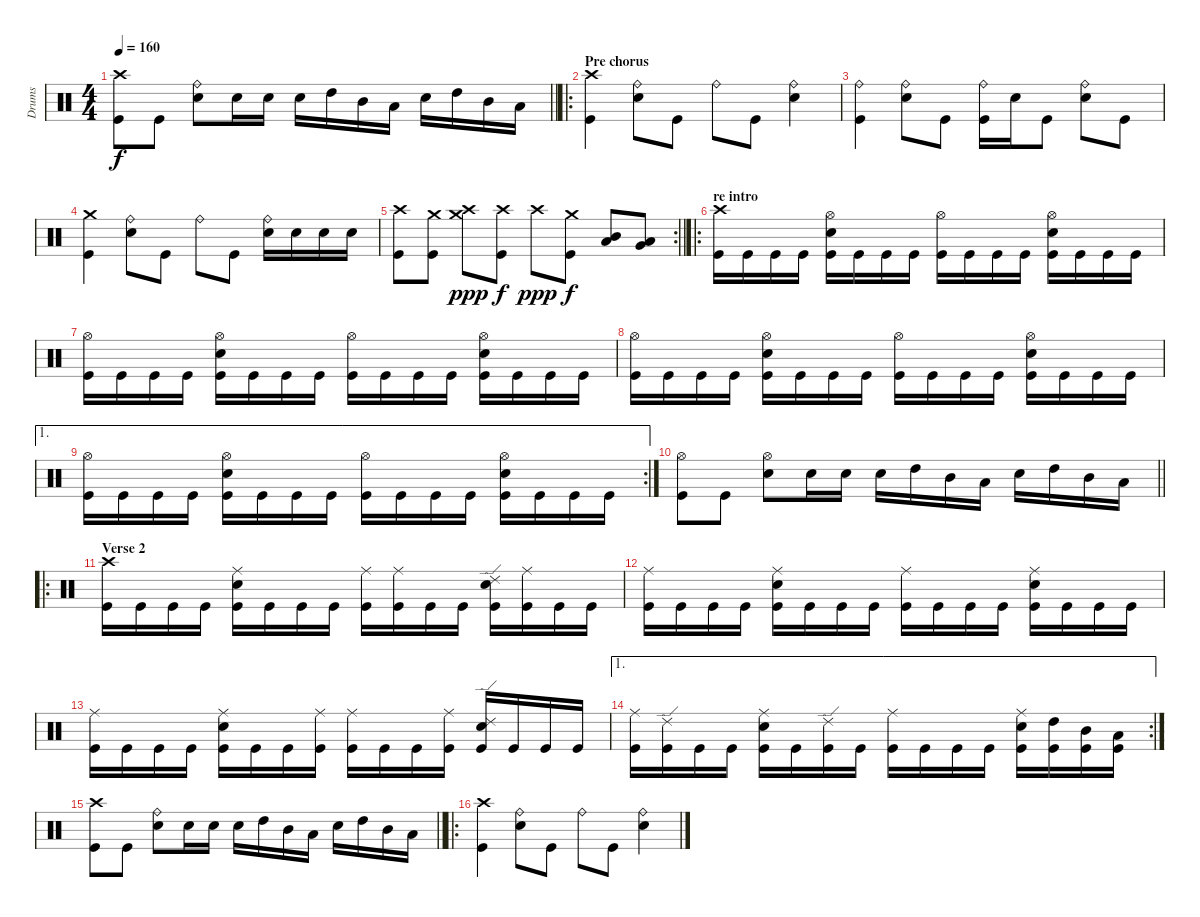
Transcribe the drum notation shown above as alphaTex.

\track ("Drums" "Drums") {instrument percussion}
\staff {score}
\articulation defaults
\ts (4 4)
\tempo 160
\clef neutral
\barLineRight lightlight
\ks c
("Crash high (hit)" "Kick (hit)").8{dy f} "Kick (hit)".8 ("Ride (bell)" "Electric Snare (hit)").8 "Electric Snare (hit)".16 "Electric Snare (hit)".16 "Electric Snare (hit)".16 "High Tom (hit)".16 "Mid Tom (hit)".16 "Low Tom (hit)".16 "Electric Snare (hit)".16 "High Tom (hit)".16 "Mid Tom (hit)".16 "Low Tom (hit)".16 |
\ro
\section ("" "Pre chorus")
("Crash high (hit)" "Kick (hit)").4 ("Ride (bell)" "Electric Snare (hit)").8 "Kick (hit)".8 "Ride (bell)".8 "Kick (hit)".8 ("Ride (bell)" "Electric Snare (hit)").4 |
("Ride (bell)" "Kick (hit)").4 ("Ride (bell)" "Electric Snare (hit)").8 "Kick (hit)".8 ("Ride (bell)" "Kick (hit)").16 "Electric Snare (hit)".16 "Kick (hit)".8 ("Ride (bell)" "Electric Snare (hit)").8 "Kick (hit)".8 |
("Crash medium (hit)" "Kick (hit)").4 ("Ride (bell)" "Electric Snare (hit)").8 "Kick (hit)".8 "Ride (bell)".8 "Kick (hit)".8 ("Ride (bell)" "Electric Snare (hit)").16 "Electric Snare (hit)".16 "Electric Snare (hit)".16 "Electric Snare (hit)".16 |
\rc 2
\barLineRight lightlight
("Crash high (hit)" "Kick (hit)").8 ("Crash medium (hit)" "Kick (hit)").8 ("Crash medium (hit)" "Crash high (hit)").8{dy ppp} ("Crash high (hit)" "Kick (hit)").8{dy f} "Crash high (hit)".8{dy ppp} ("Crash medium (hit)" "Kick (hit)").8{dy f} ("Mid Tom (hit)" "Low Tom (hit)").8 ("Low Tom (hit)" "Very Low Tom (hit)").8 |
\ro
\section ("" "re intro")
("Crash high (hit)" "Kick (hit)").16 "Kick (hit)".16 "Kick (hit)".16 "Kick (hit)".16 ("Hi-Hat (open)" "Electric Snare (hit)" "Kick (hit)").16 "Kick (hit)".16 "Kick (hit)".16 "Kick (hit)".16 ("Hi-Hat (open)" "Kick (hit)").16 "Kick (hit)".16 "Kick (hit)".16 "Kick (hit)".16 ("Hi-Hat (open)" "Electric Snare (hit)" "Kick (hit)").16 "Kick (hit)".16 "Kick (hit)".16 "Kick (hit)".16 |
("Hi-Hat (open)" "Kick (hit)").16 "Kick (hit)".16 "Kick (hit)".16 "Kick (hit)".16 ("Hi-Hat (open)" "Electric Snare (hit)" "Kick (hit)").16 "Kick (hit)".16 "Kick (hit)".16 "Kick (hit)".16 ("Hi-Hat (open)" "Kick (hit)").16 "Kick (hit)".16 "Kick (hit)".16 "Kick (hit)".16 ("Hi-Hat (open)" "Electric Snare (hit)" "Kick (hit)").16 "Kick (hit)".16 "Kick (hit)".16 "Kick (hit)".16 |
("Hi-Hat (open)" "Kick (hit)").16 "Kick (hit)".16 "Kick (hit)".16 "Kick (hit)".16 ("Hi-Hat (open)" "Electric Snare (hit)" "Kick (hit)").16 "Kick (hit)".16 "Kick (hit)".16 "Kick (hit)".16 ("Hi-Hat (open)" "Kick (hit)").16 "Kick (hit)".16 "Kick (hit)".16 "Kick (hit)".16 ("Hi-Hat (open)" "Electric Snare (hit)" "Kick (hit)").16 "Kick (hit)".16 "Kick (hit)".16 "Kick (hit)".16 |
\ae 1
\rc 2
("Hi-Hat (open)" "Kick (hit)").16 "Kick (hit)".16 "Kick (hit)".16 "Kick (hit)".16 ("Hi-Hat (open)" "Electric Snare (hit)" "Kick (hit)").16 "Kick (hit)".16 "Kick (hit)".16 "Kick (hit)".16 ("Hi-Hat (open)" "Kick (hit)").16 "Kick (hit)".16 "Kick (hit)".16 "Kick (hit)".16 ("Hi-Hat (open)" "Electric Snare (hit)" "Kick (hit)").16 "Kick (hit)".16 "Kick (hit)".16 "Kick (hit)".16 |
\barLineRight lightlight
("Hi-Hat (open)" "Kick (hit)").8 "Kick (hit)".8 ("Hi-Hat (open)" "Electric Snare (hit)").8 "Electric Snare (hit)".16 "Electric Snare (hit)".16 "Electric Snare (hit)".16 "High Tom (hit)".16 "Mid Tom (hit)".16 "Low Tom (hit)".16 "Electric Snare (hit)".16 "High Tom (hit)".16 "Mid Tom (hit)".16 "Low Tom (hit)".16 |
\ro
\section ("" "Verse 2")
("Crash high (hit)" "Kick (hit)").16 "Kick (hit)".16 "Kick (hit)".16 "Kick (hit)".16 ("Ride (middle)" "Electric Snare (hit)" "Kick (hit)").16 "Kick (hit)".16 "Kick (hit)".16 "Kick (hit)".16 ("Ride (middle)" "Kick (hit)").16 ("Ride (middle)" "Kick (hit)").16 "Kick (hit)".16 "Kick (hit)".16 ("Ride (edge) 2" "Electric Snare (hit)" "Kick (hit)").16 ("Ride (middle)" "Kick (hit)").16 "Kick (hit)".16 "Kick (hit)".16 |
("Ride (middle)" "Kick (hit)").16 "Kick (hit)".16 "Kick (hit)".16 "Kick (hit)".16 ("Ride (middle)" "Electric Snare (hit)" "Kick (hit)").16 "Kick (hit)".16 "Kick (hit)".16 "Kick (hit)".16 ("Ride (middle)" "Kick (hit)").16 "Kick (hit)".16 "Kick (hit)".16 "Kick (hit)".16 ("Ride (middle)" "Electric Snare (hit)" "Kick (hit)").16 "Kick (hit)".16 "Kick (hit)".16 "Kick (hit)".16 |
("Ride (middle)" "Kick (hit)").16 "Kick (hit)".16 "Kick (hit)".16 "Kick (hit)".16 ("Ride (middle)" "Electric Snare (hit)" "Kick (hit)").16 "Kick (hit)".16 "Kick (hit)".16 ("Ride (middle)" "Kick (hit)").16 ("Ride (middle)" "Kick (hit)").16 "Kick (hit)".16 "Kick (hit)".16 ("Ride (middle)" "Kick (hit)").16 ("Ride (edge) 2" "Electric Snare (hit)" "Kick (hit)").16 "Kick (hit)".16 "Kick (hit)".16 "Kick (hit)".16 |
\ae 1
\rc 2
("Ride (middle)" "Kick (hit)").16 ("Ride (edge) 2" "Kick (hit)").16 "Kick (hit)".16 "Kick (hit)".16 ("Ride (middle)" "Electric Snare (hit)" "Kick (hit)").16 "Kick (hit)".16 ("Ride (edge) 2" "Kick (hit)").16 "Kick (hit)".16 ("Ride (middle)" "Kick (hit)").16 "Kick (hit)".16 "Kick (hit)".16 "Kick (hit)".16 ("Ride (middle)" "Electric Snare (hit)" "Kick (hit)").16 ("High Tom (hit)" "Kick (hit)").16 ("Mid Tom (hit)" "Kick (hit)").16 ("Low Tom (hit)" "Kick (hit)").16 |
\barLineRight lightlight
("Crash high (hit)" "Kick (hit)").8 "Kick (hit)".8 ("Ride (bell)" "Electric Snare (hit)").8 "Electric Snare (hit)".16 "Electric Snare (hit)".16 "Electric Snare (hit)".16 "High Tom (hit)".16 "Mid Tom (hit)".16 "Low Tom (hit)".16 "Electric Snare (hit)".16 "High Tom (hit)".16 "Mid Tom (hit)".16 "Low Tom (hit)".16 |
\ro
("Crash high (hit)" "Kick (hit)").4 ("Ride (bell)" "Electric Snare (hit)").8 "Kick (hit)".8 "Ride (bell)".8 "Kick (hit)".8 ("Ride (bell)" "Electric Snare (hit)").4
